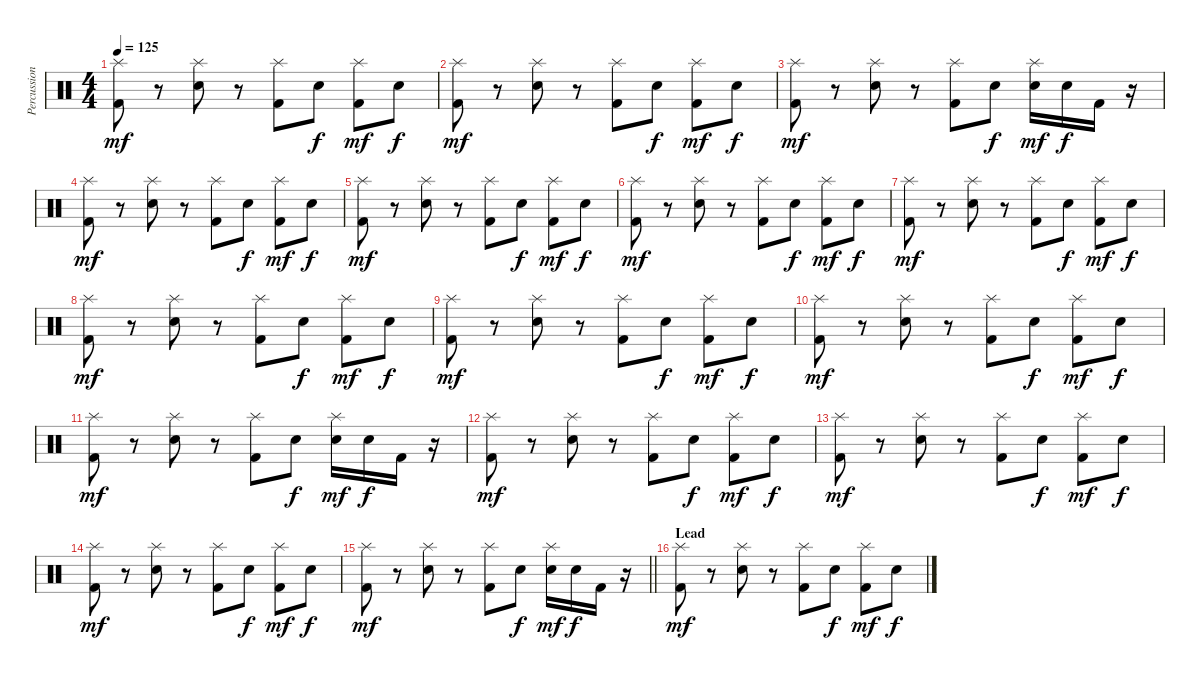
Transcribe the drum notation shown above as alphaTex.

\track ("Percussion" "Percussion") {instrument percussion}
\staff {score}
\articulation defaults
\ts (4 4)
\tempo 125
\clef neutral
\ks c
("Kick (hit) 2" "Splash (hit)").8{dy mf} r.8 ("Snare (hit) 2" "Splash (hit)").8 r.8 ("Kick (hit) 2" "Splash (hit)").8 "Snare (hit) 2".8{dy f} ("Kick (hit) 2" "Splash (hit)").8{dy mf} "Snare (hit) 2".8{dy f} |
("Kick (hit) 2" "Splash (hit)").8{dy mf} r.8 ("Snare (hit) 2" "Splash (hit)").8 r.8 ("Kick (hit) 2" "Splash (hit)").8 "Snare (hit) 2".8{dy f} ("Kick (hit) 2" "Splash (hit)").8{dy mf} "Snare (hit) 2".8{dy f} |
("Kick (hit) 2" "Splash (hit)").8{dy mf} r.8 ("Snare (hit) 2" "Splash (hit)").8 r.8 ("Kick (hit) 2" "Splash (hit)").8 "Snare (hit) 2".8{dy f} ("Snare (hit) 2" "Splash (hit)").16{dy mf} "Snare (hit) 2".16{dy f} "Kick (hit) 2".16 r.16 |
("Kick (hit) 2" "Splash (hit)").8{dy mf} r.8 ("Snare (hit) 2" "Splash (hit)").8 r.8 ("Kick (hit) 2" "Splash (hit)").8 "Snare (hit) 2".8{dy f} ("Kick (hit) 2" "Splash (hit)").8{dy mf} "Snare (hit) 2".8{dy f} |
("Kick (hit) 2" "Splash (hit)").8{dy mf} r.8 ("Snare (hit) 2" "Splash (hit)").8 r.8 ("Kick (hit) 2" "Splash (hit)").8 "Snare (hit) 2".8{dy f} ("Kick (hit) 2" "Splash (hit)").8{dy mf} "Snare (hit) 2".8{dy f} |
("Kick (hit) 2" "Splash (hit)").8{dy mf} r.8 ("Snare (hit) 2" "Splash (hit)").8 r.8 ("Kick (hit) 2" "Splash (hit)").8 "Snare (hit) 2".8{dy f} ("Kick (hit) 2" "Splash (hit)").8{dy mf} "Snare (hit) 2".8{dy f} |
("Kick (hit) 2" "Splash (hit)").8{dy mf} r.8 ("Snare (hit) 2" "Splash (hit)").8 r.8 ("Kick (hit) 2" "Splash (hit)").8 "Snare (hit) 2".8{dy f} ("Kick (hit) 2" "Splash (hit)").8{dy mf} "Snare (hit) 2".8{dy f} |
("Kick (hit) 2" "Splash (hit)").8{dy mf} r.8 ("Snare (hit) 2" "Splash (hit)").8 r.8 ("Kick (hit) 2" "Splash (hit)").8 "Snare (hit) 2".8{dy f} ("Kick (hit) 2" "Splash (hit)").8{dy mf} "Snare (hit) 2".8{dy f} |
("Kick (hit) 2" "Splash (hit)").8{dy mf} r.8 ("Snare (hit) 2" "Splash (hit)").8 r.8 ("Kick (hit) 2" "Splash (hit)").8 "Snare (hit) 2".8{dy f} ("Kick (hit) 2" "Splash (hit)").8{dy mf} "Snare (hit) 2".8{dy f} |
("Kick (hit) 2" "Splash (hit)").8{dy mf} r.8 ("Snare (hit) 2" "Splash (hit)").8 r.8 ("Kick (hit) 2" "Splash (hit)").8 "Snare (hit) 2".8{dy f} ("Kick (hit) 2" "Splash (hit)").8{dy mf} "Snare (hit) 2".8{dy f} |
("Kick (hit) 2" "Splash (hit)").8{dy mf} r.8 ("Snare (hit) 2" "Splash (hit)").8 r.8 ("Kick (hit) 2" "Splash (hit)").8 "Snare (hit) 2".8{dy f} ("Snare (hit) 2" "Splash (hit)").16{dy mf} "Snare (hit) 2".16{dy f} "Kick (hit) 2".16 r.16 |
("Kick (hit) 2" "Splash (hit)").8{dy mf} r.8 ("Snare (hit) 2" "Splash (hit)").8 r.8 ("Kick (hit) 2" "Splash (hit)").8 "Snare (hit) 2".8{dy f} ("Kick (hit) 2" "Splash (hit)").8{dy mf} "Snare (hit) 2".8{dy f} |
("Kick (hit) 2" "Splash (hit)").8{dy mf} r.8 ("Snare (hit) 2" "Splash (hit)").8 r.8 ("Kick (hit) 2" "Splash (hit)").8 "Snare (hit) 2".8{dy f} ("Kick (hit) 2" "Splash (hit)").8{dy mf} "Snare (hit) 2".8{dy f} |
("Kick (hit) 2" "Splash (hit)").8{dy mf} r.8 ("Snare (hit) 2" "Splash (hit)").8 r.8 ("Kick (hit) 2" "Splash (hit)").8 "Snare (hit) 2".8{dy f} ("Kick (hit) 2" "Splash (hit)").8{dy mf} "Snare (hit) 2".8{dy f} |
\barLineRight lightlight
("Kick (hit) 2" "Splash (hit)").8{dy mf} r.8 ("Snare (hit) 2" "Splash (hit)").8 r.8 ("Kick (hit) 2" "Splash (hit)").8 "Snare (hit) 2".8{dy f} ("Snare (hit) 2" "Splash (hit)").16{dy mf} "Snare (hit) 2".16{dy f} "Kick (hit) 2".16 r.16 |
\section ("" "Lead")
("Kick (hit) 2" "Splash (hit)").8{dy mf} r.8 ("Snare (hit) 2" "Splash (hit)").8 r.8 ("Kick (hit) 2" "Splash (hit)").8 "Snare (hit) 2".8{dy f} ("Kick (hit) 2" "Splash (hit)").8{dy mf} "Snare (hit) 2".8{dy f}
